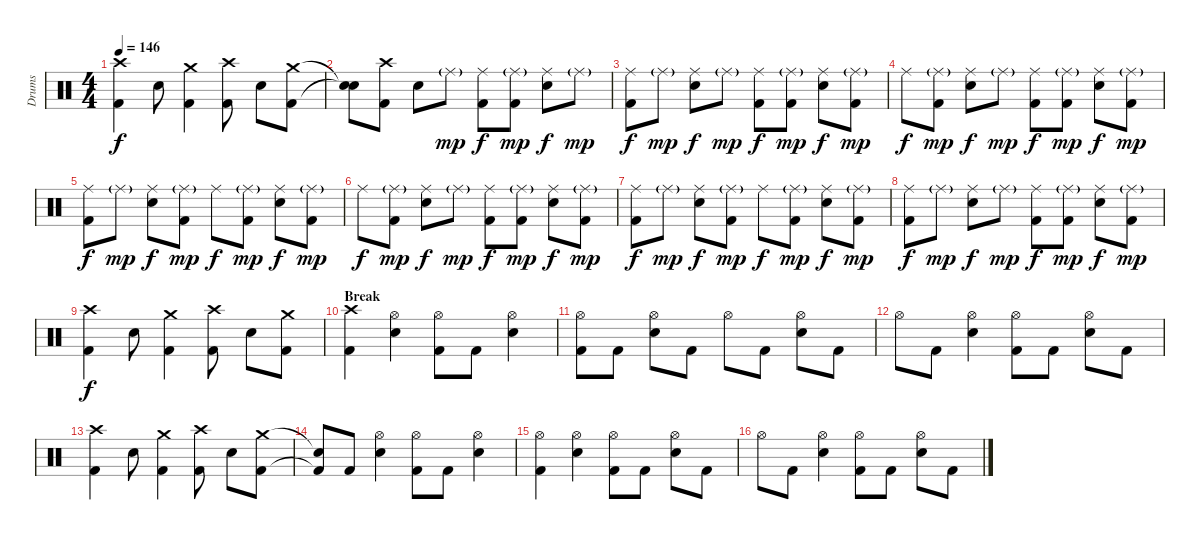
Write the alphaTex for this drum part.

\track ("Drums" "Drums") {instrument percussion}
\staff {score}
\articulation defaults
\ts (4 4)
\tempo 146
\clef neutral
\ks c
("Crash high (hit)" "Kick (hit) 2").4{dy f} "Snare (hit) 2".8 ("Crash medium (hit)" "Kick (hit) 2").4 ("Crash high (hit)" "Kick (hit) 2").8 "Snare (hit) 2".8 ("Crash medium (hit)" "Kick (hit) 2").8 |
("Snare (hit)"{t} "Snare (hit)"{t}).8 ("Crash high (hit)" "Kick (hit) 2").8 "Snare (hit) 2".8 "Ride (middle)"{g}.8{dy mp} ("Ride (middle)" "Kick (hit) 2").8{dy f} ("Ride (middle)"{g} "Kick (hit) 2").8{dy mp} ("Ride (middle)" "Snare (hit) 2").8{dy f} "Ride (middle)"{g}.8{dy mp} |
("Ride (middle)" "Kick (hit) 2").8{dy f} "Ride (middle)"{g}.8{dy mp} ("Ride (middle)" "Snare (hit) 2").8{dy f} "Ride (middle)"{g}.8{dy mp} ("Ride (middle)" "Kick (hit) 2").8{dy f} ("Ride (middle)"{g} "Kick (hit) 2").8{dy mp} ("Ride (middle)" "Snare (hit) 2").8{dy f} ("Ride (middle)"{g} "Kick (hit) 2").8{dy mp} |
"Ride (middle)".8{dy f} ("Ride (middle)"{g} "Kick (hit) 2").8{dy mp} ("Ride (middle)" "Snare (hit) 2").8{dy f} "Ride (middle)"{g}.8{dy mp} ("Ride (middle)" "Kick (hit) 2").8{dy f} ("Ride (middle)"{g} "Kick (hit) 2").8{dy mp} ("Ride (middle)" "Snare (hit) 2").8{dy f} ("Ride (middle)"{g} "Kick (hit) 2").8{dy mp} |
("Ride (middle)" "Kick (hit) 2").8{dy f} "Ride (middle)"{g}.8{dy mp} ("Ride (middle)" "Snare (hit) 2").8{dy f} ("Ride (middle)"{g} "Kick (hit) 2").8{dy mp} "Ride (middle)".8{dy f} ("Ride (middle)"{g} "Kick (hit) 2").8{dy mp} ("Ride (middle)" "Snare (hit) 2").8{dy f} ("Ride (middle)"{g} "Kick (hit) 2").8{dy mp} |
"Ride (middle)".8{dy f} ("Ride (middle)"{g} "Kick (hit) 2").8{dy mp} ("Ride (middle)" "Snare (hit) 2").8{dy f} "Ride (middle)"{g}.8{dy mp} ("Ride (middle)" "Kick (hit) 2").8{dy f} ("Ride (middle)"{g} "Kick (hit) 2").8{dy mp} ("Ride (middle)" "Snare (hit) 2").8{dy f} ("Ride (middle)"{g} "Kick (hit) 2").8{dy mp} |
("Ride (middle)" "Kick (hit) 2").8{dy f} "Ride (middle)"{g}.8{dy mp} ("Ride (middle)" "Snare (hit) 2").8{dy f} ("Ride (middle)"{g} "Kick (hit) 2").8{dy mp} "Ride (middle)".8{dy f} ("Ride (middle)"{g} "Kick (hit) 2").8{dy mp} ("Ride (middle)" "Snare (hit) 2").8{dy f} ("Ride (middle)"{g} "Kick (hit) 2").8{dy mp} |
("Ride (middle)" "Kick (hit) 2").8{dy f} "Ride (middle)"{g}.8{dy mp} ("Ride (middle)" "Snare (hit) 2").8{dy f} "Ride (middle)"{g}.8{dy mp} ("Ride (middle)" "Kick (hit) 2").8{dy f} ("Ride (middle)"{g} "Kick (hit) 2").8{dy mp} ("Ride (middle)" "Snare (hit) 2").8{dy f} ("Ride (middle)"{g} "Kick (hit) 2").8{dy mp} |
("Crash high (hit)" "Kick (hit) 2").4{dy f} "Snare (hit) 2".8 ("Crash medium (hit)" "Kick (hit) 2").4 ("Crash high (hit)" "Kick (hit) 2").8 "Snare (hit) 2".8 ("Crash medium (hit)" "Kick (hit) 2").8 |
\section ("" "Break")
("Crash high (hit)" "Kick (hit) 2").4 ("Hi-Hat (open)" "Snare (hit) 2").4 ("Hi-Hat (open)" "Kick (hit) 2").8 "Kick (hit) 2".8 ("Hi-Hat (open)" "Snare (hit) 2").4 |
("Hi-Hat (open)" "Kick (hit) 2").8 "Kick (hit) 2".8 ("Hi-Hat (open)" "Snare (hit) 2").8 "Kick (hit) 2".8 "Hi-Hat (open)".8 "Kick (hit) 2".8 ("Hi-Hat (open)" "Snare (hit) 2").8 "Kick (hit) 2".8 |
"Hi-Hat (open)".8 "Kick (hit) 2".8 ("Hi-Hat (open)" "Snare (hit) 2").4 ("Hi-Hat (open)" "Kick (hit) 2").8 "Kick (hit) 2".8 ("Hi-Hat (open)" "Snare (hit) 2").8 "Kick (hit) 2".8 |
("Crash high (hit)" "Kick (hit) 2").4 "Snare (hit) 2".8 ("Crash medium (hit)" "Kick (hit) 2").4 ("Crash high (hit)" "Kick (hit) 2").8 "Snare (hit) 2".8 ("Crash medium (hit)" "Kick (hit) 2").8 |
("Snare (hit)"{t} "Kick (hit) 2"{t}).8 "Kick (hit) 2".8 ("Hi-Hat (open)" "Snare (hit) 2").4 ("Hi-Hat (open)" "Kick (hit) 2").8 "Kick (hit) 2".8 ("Hi-Hat (open)" "Snare (hit) 2").4 |
("Hi-Hat (open)" "Kick (hit) 2").4 ("Hi-Hat (open)" "Snare (hit) 2").4 ("Hi-Hat (open)" "Kick (hit) 2").8 "Kick (hit) 2".8 ("Hi-Hat (open)" "Snare (hit) 2").8 "Kick (hit) 2".8 |
"Hi-Hat (open)".8 "Kick (hit) 2".8 ("Hi-Hat (open)" "Snare (hit) 2").4 ("Hi-Hat (open)" "Kick (hit) 2").8 "Kick (hit) 2".8 ("Hi-Hat (open)" "Snare (hit) 2").8 "Kick (hit) 2".8
